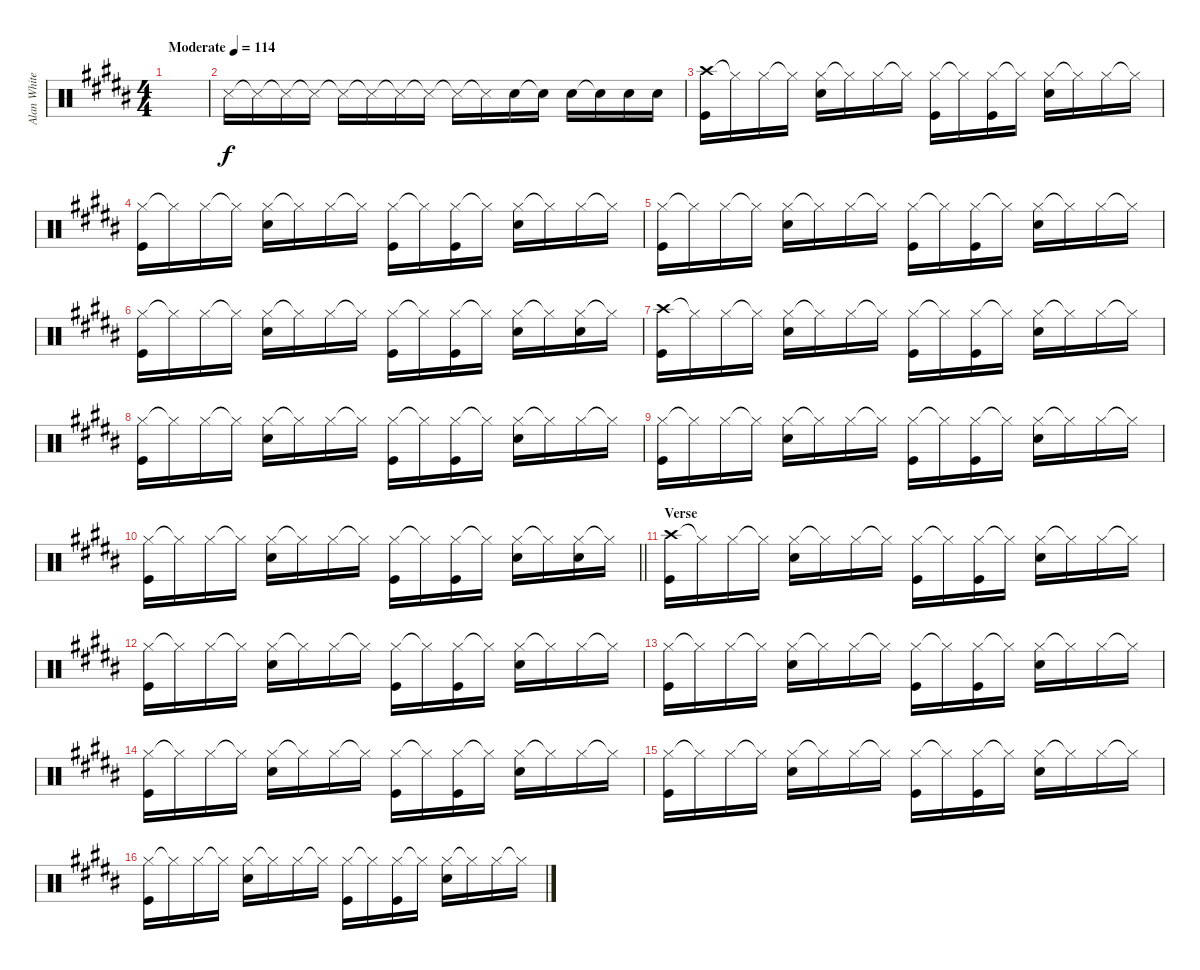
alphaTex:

\track ("Alan White" "Alan White") {instrument percussion}
\staff {score}
\articulation defaults
\ts (4 4)
\tempo (114 "Moderate")
\clef neutral
\ks b
|
"Snare (side stick) 3".16 "Snare (side stick) 3"{t}.16 "Snare (side stick) 3"{t}.16 "Snare (side stick) 3"{t}.16 "Snare (side stick) 3"{t}.16 "Snare (side stick) 3"{t}.16 "Snare (side stick) 3"{t}.16 "Snare (side stick) 3"{t}.16 "Snare (side stick) 3"{t}.16 "Snare (side stick) 3"{t}.16 "Snare (hit) 2".16 "Snare (hit) 2"{t}.16 "Snare (hit) 2".16 "Snare (hit) 2"{t}.16 "Snare (hit) 2".16 "Snare (hit) 2".16 |
("Crash high (hit)" "Kick (hit)").16 "Hi-Hat (closed)"{t}.16 "Hi-Hat (closed)".16 "Hi-Hat (closed)"{t}.16 ("Hi-Hat (closed)" "Snare (hit) 2").16 "Hi-Hat (closed)"{t}.16 "Hi-Hat (closed)".16 "Hi-Hat (closed)"{t}.16 ("Hi-Hat (closed)" "Kick (hit)").16 "Hi-Hat (closed)"{t}.16 ("Hi-Hat (closed)" "Kick (hit)").16 "Hi-Hat (closed)"{t}.16 ("Hi-Hat (closed)" "Snare (hit) 2").16 "Hi-Hat (closed)"{t}.16 "Hi-Hat (closed)".16 "Hi-Hat (closed)"{t}.16 |
("Hi-Hat (closed)" "Kick (hit)").16 "Hi-Hat (closed)"{t}.16 "Hi-Hat (closed)".16 "Hi-Hat (closed)"{t}.16 ("Hi-Hat (closed)" "Snare (hit) 2").16 "Hi-Hat (closed)"{t}.16 "Hi-Hat (closed)".16 "Hi-Hat (closed)"{t}.16 ("Hi-Hat (closed)" "Kick (hit)").16 "Hi-Hat (closed)"{t}.16 ("Hi-Hat (closed)" "Kick (hit)").16 "Hi-Hat (closed)"{t}.16 ("Hi-Hat (closed)" "Snare (hit) 2").16 "Hi-Hat (closed)"{t}.16 "Hi-Hat (closed)".16 "Hi-Hat (closed)"{t}.16 |
("Hi-Hat (closed)" "Kick (hit)").16 "Hi-Hat (closed)"{t}.16 "Hi-Hat (closed)".16 "Hi-Hat (closed)"{t}.16 ("Hi-Hat (closed)" "Snare (hit) 2").16 "Hi-Hat (closed)"{t}.16 "Hi-Hat (closed)".16 "Hi-Hat (closed)"{t}.16 ("Hi-Hat (closed)" "Kick (hit)").16 "Hi-Hat (closed)"{t}.16 ("Hi-Hat (closed)" "Kick (hit)").16 "Hi-Hat (closed)"{t}.16 ("Hi-Hat (closed)" "Snare (hit) 2").16 "Hi-Hat (closed)"{t}.16 "Hi-Hat (closed)".16 "Hi-Hat (closed)"{t}.16 |
("Hi-Hat (closed)" "Kick (hit)").16 "Hi-Hat (closed)"{t}.16 "Hi-Hat (closed)".16 "Hi-Hat (closed)"{t}.16 ("Hi-Hat (closed)" "Snare (hit) 2").16 "Hi-Hat (closed)"{t}.16 "Hi-Hat (closed)".16 "Hi-Hat (closed)"{t}.16 ("Hi-Hat (closed)" "Kick (hit)").16 "Hi-Hat (closed)"{t}.16 ("Hi-Hat (closed)" "Kick (hit)").16 "Hi-Hat (closed)"{t}.16 ("Hi-Hat (closed)" "Snare (hit) 2").16 "Hi-Hat (closed)"{t}.16 ("Hi-Hat (closed)" "Snare (hit) 2").16 "Hi-Hat (closed)"{t}.16 |
("Crash high (hit)" "Kick (hit)").16 "Hi-Hat (closed)"{t}.16 "Hi-Hat (closed)".16 "Hi-Hat (closed)"{t}.16 ("Hi-Hat (closed)" "Snare (hit) 2").16 "Hi-Hat (closed)"{t}.16 "Hi-Hat (closed)".16 "Hi-Hat (closed)"{t}.16 ("Hi-Hat (closed)" "Kick (hit)").16 "Hi-Hat (closed)"{t}.16 ("Hi-Hat (closed)" "Kick (hit)").16 "Hi-Hat (closed)"{t}.16 ("Hi-Hat (closed)" "Snare (hit) 2").16 "Hi-Hat (closed)"{t}.16 "Hi-Hat (closed)".16 "Hi-Hat (closed)"{t}.16 |
("Hi-Hat (closed)" "Kick (hit)").16 "Hi-Hat (closed)"{t}.16 "Hi-Hat (closed)".16 "Hi-Hat (closed)"{t}.16 ("Hi-Hat (closed)" "Snare (hit) 2").16 "Hi-Hat (closed)"{t}.16 "Hi-Hat (closed)".16 "Hi-Hat (closed)"{t}.16 ("Hi-Hat (closed)" "Kick (hit)").16 "Hi-Hat (closed)"{t}.16 ("Hi-Hat (closed)" "Kick (hit)").16 "Hi-Hat (closed)"{t}.16 ("Hi-Hat (closed)" "Snare (hit) 2").16 "Hi-Hat (closed)"{t}.16 "Hi-Hat (closed)".16 "Hi-Hat (closed)"{t}.16 |
("Hi-Hat (closed)" "Kick (hit)").16 "Hi-Hat (closed)"{t}.16 "Hi-Hat (closed)".16 "Hi-Hat (closed)"{t}.16 ("Hi-Hat (closed)" "Snare (hit) 2").16 "Hi-Hat (closed)"{t}.16 "Hi-Hat (closed)".16 "Hi-Hat (closed)"{t}.16 ("Hi-Hat (closed)" "Kick (hit)").16 "Hi-Hat (closed)"{t}.16 ("Hi-Hat (closed)" "Kick (hit)").16 "Hi-Hat (closed)"{t}.16 ("Hi-Hat (closed)" "Snare (hit) 2").16 "Hi-Hat (closed)"{t}.16 "Hi-Hat (closed)".16 "Hi-Hat (closed)"{t}.16 |
\barLineRight lightlight
("Hi-Hat (closed)" "Kick (hit)").16 "Hi-Hat (closed)"{t}.16 "Hi-Hat (closed)".16 "Hi-Hat (closed)"{t}.16 ("Hi-Hat (closed)" "Snare (hit) 2").16 "Hi-Hat (closed)"{t}.16 "Hi-Hat (closed)".16 "Hi-Hat (closed)"{t}.16 ("Hi-Hat (closed)" "Kick (hit)").16 "Hi-Hat (closed)"{t}.16 ("Hi-Hat (closed)" "Kick (hit)").16 "Hi-Hat (closed)"{t}.16 ("Hi-Hat (closed)" "Snare (hit) 2").16 "Hi-Hat (closed)"{t}.16 ("Hi-Hat (closed)" "Snare (hit) 2").16 "Hi-Hat (closed)"{t}.16 |
\section ("" "Verse ")
("Crash high (hit)" "Kick (hit)").16 "Hi-Hat (closed)"{t}.16 "Hi-Hat (closed)".16 "Hi-Hat (closed)"{t}.16 ("Hi-Hat (closed)" "Snare (hit) 2").16 "Hi-Hat (closed)"{t}.16 "Hi-Hat (closed)".16 "Hi-Hat (closed)"{t}.16 ("Hi-Hat (closed)" "Kick (hit)").16 "Hi-Hat (closed)"{t}.16 ("Hi-Hat (closed)" "Kick (hit)").16 "Hi-Hat (closed)"{t}.16 ("Hi-Hat (closed)" "Snare (hit) 2").16 "Hi-Hat (closed)"{t}.16 "Hi-Hat (closed)".16 "Hi-Hat (closed)"{t}.16 |
("Hi-Hat (closed)" "Kick (hit)").16 "Hi-Hat (closed)"{t}.16 "Hi-Hat (closed)".16 "Hi-Hat (closed)"{t}.16 ("Hi-Hat (closed)" "Snare (hit) 2").16 "Hi-Hat (closed)"{t}.16 "Hi-Hat (closed)".16 "Hi-Hat (closed)"{t}.16 ("Hi-Hat (closed)" "Kick (hit)").16 "Hi-Hat (closed)"{t}.16 ("Hi-Hat (closed)" "Kick (hit)").16 "Hi-Hat (closed)"{t}.16 ("Hi-Hat (closed)" "Snare (hit) 2").16 "Hi-Hat (closed)"{t}.16 "Hi-Hat (closed)".16 "Hi-Hat (closed)"{t}.16 |
("Hi-Hat (closed)" "Kick (hit)").16 "Hi-Hat (closed)"{t}.16 "Hi-Hat (closed)".16 "Hi-Hat (closed)"{t}.16 ("Hi-Hat (closed)" "Snare (hit) 2").16 "Hi-Hat (closed)"{t}.16 "Hi-Hat (closed)".16 "Hi-Hat (closed)"{t}.16 ("Hi-Hat (closed)" "Kick (hit)").16 "Hi-Hat (closed)"{t}.16 ("Hi-Hat (closed)" "Kick (hit)").16 "Hi-Hat (closed)"{t}.16 ("Hi-Hat (closed)" "Snare (hit) 2").16 "Hi-Hat (closed)"{t}.16 "Hi-Hat (closed)".16 "Hi-Hat (closed)"{t}.16 |
("Hi-Hat (closed)" "Kick (hit)").16 "Hi-Hat (closed)"{t}.16 "Hi-Hat (closed)".16 "Hi-Hat (closed)"{t}.16 ("Hi-Hat (closed)" "Snare (hit) 2").16 "Hi-Hat (closed)"{t}.16 "Hi-Hat (closed)".16 "Hi-Hat (closed)"{t}.16 ("Hi-Hat (closed)" "Kick (hit)").16 "Hi-Hat (closed)"{t}.16 ("Hi-Hat (closed)" "Kick (hit)").16 "Hi-Hat (closed)"{t}.16 ("Hi-Hat (closed)" "Snare (hit) 2").16 "Hi-Hat (closed)"{t}.16 "Hi-Hat (closed)".16 "Hi-Hat (closed)"{t}.16 |
("Hi-Hat (closed)" "Kick (hit)").16 "Hi-Hat (closed)"{t}.16 "Hi-Hat (closed)".16 "Hi-Hat (closed)"{t}.16 ("Hi-Hat (closed)" "Snare (hit) 2").16 "Hi-Hat (closed)"{t}.16 "Hi-Hat (closed)".16 "Hi-Hat (closed)"{t}.16 ("Hi-Hat (closed)" "Kick (hit)").16 "Hi-Hat (closed)"{t}.16 ("Hi-Hat (closed)" "Kick (hit)").16 "Hi-Hat (closed)"{t}.16 ("Hi-Hat (closed)" "Snare (hit) 2").16 "Hi-Hat (closed)"{t}.16 "Hi-Hat (closed)".16 "Hi-Hat (closed)"{t}.16 |
("Hi-Hat (closed)" "Kick (hit)").16 "Hi-Hat (closed)"{t}.16 "Hi-Hat (closed)".16 "Hi-Hat (closed)"{t}.16 ("Hi-Hat (closed)" "Snare (hit) 2").16 "Hi-Hat (closed)"{t}.16 "Hi-Hat (closed)".16 "Hi-Hat (closed)"{t}.16 ("Hi-Hat (closed)" "Kick (hit)").16 "Hi-Hat (closed)"{t}.16 ("Hi-Hat (closed)" "Kick (hit)").16 "Hi-Hat (closed)"{t}.16 ("Hi-Hat (closed)" "Snare (hit) 2").16 "Hi-Hat (closed)"{t}.16 "Hi-Hat (closed)".16 "Hi-Hat (closed)"{t}.16
